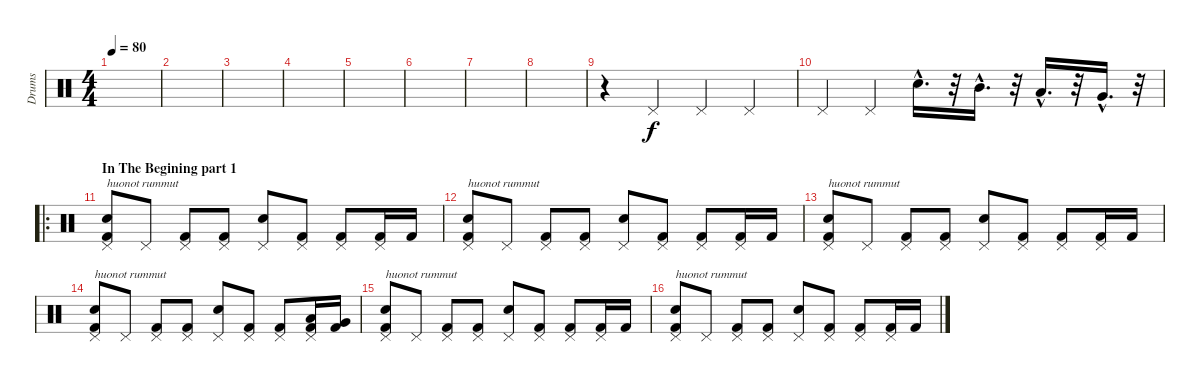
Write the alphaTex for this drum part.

\track ("Drums" "Drums") {instrument percussion}
\staff {score}
\articulation defaults
\ts (4 4)
\tempo 80
\clef neutral
\ks c
|
|
|
|
|
|
|
|
r.4 "Pedal Hi-Hat (hit)".4 "Pedal Hi-Hat (hit)".4 "Pedal Hi-Hat (hit)".4 |
"Pedal Hi-Hat (hit)".4 "Pedal Hi-Hat (hit)".4 "Snare (hit) 2"{hac}.16{d} r.32 "Mid Tom (hit)"{hac}.16{d} r.32 "Low Tom (hit)"{hac}.16{d} r.32 "Very Low Tom (hit)"{hac}.16{d} r.32 |
\ro
\section ("" "In The Begining part 1")
("Pedal Hi-Hat (hit)" "Snare (hit) 2" "Kick (hit) 2").8{txt "huonot rummut"} "Pedal Hi-Hat (hit)".8 ("Pedal Hi-Hat (hit)" "Kick (hit) 2").8 ("Pedal Hi-Hat (hit)" "Kick (hit) 2").8 ("Pedal Hi-Hat (hit)" "Snare (hit) 2").8 ("Pedal Hi-Hat (hit)" "Kick (hit) 2").8 ("Pedal Hi-Hat (hit)" "Kick (hit) 2").8 ("Pedal Hi-Hat (hit)" "Kick (hit) 2").16 "Kick (hit) 2".16 |
("Pedal Hi-Hat (hit)" "Snare (hit) 2" "Kick (hit) 2").8{txt "huonot rummut"} "Pedal Hi-Hat (hit)".8 ("Pedal Hi-Hat (hit)" "Kick (hit) 2").8 ("Pedal Hi-Hat (hit)" "Kick (hit) 2").8 ("Pedal Hi-Hat (hit)" "Snare (hit) 2").8 ("Pedal Hi-Hat (hit)" "Kick (hit) 2").8 ("Pedal Hi-Hat (hit)" "Kick (hit) 2").8 ("Pedal Hi-Hat (hit)" "Kick (hit) 2").16 "Kick (hit) 2".16 |
("Pedal Hi-Hat (hit)" "Snare (hit) 2" "Kick (hit) 2").8{txt "huonot rummut"} "Pedal Hi-Hat (hit)".8 ("Pedal Hi-Hat (hit)" "Kick (hit) 2").8 ("Pedal Hi-Hat (hit)" "Kick (hit) 2").8 ("Pedal Hi-Hat (hit)" "Snare (hit) 2").8 ("Pedal Hi-Hat (hit)" "Kick (hit) 2").8 ("Pedal Hi-Hat (hit)" "Kick (hit) 2").8 ("Pedal Hi-Hat (hit)" "Kick (hit) 2").16 "Kick (hit) 2".16 |
("Pedal Hi-Hat (hit)" "Snare (hit) 2" "Kick (hit) 2").8{txt "huonot rummut"} "Pedal Hi-Hat (hit)".8 ("Pedal Hi-Hat (hit)" "Kick (hit) 2").8 ("Pedal Hi-Hat (hit)" "Kick (hit) 2").8 ("Pedal Hi-Hat (hit)" "Snare (hit) 2").8 ("Pedal Hi-Hat (hit)" "Kick (hit) 2").8 ("Pedal Hi-Hat (hit)" "Kick (hit) 2").8 ("Pedal Hi-Hat (hit)" "Low Tom (hit)" "Kick (hit) 2").16 ("Very Low Tom (hit)" "Kick (hit) 2").16 |
("Pedal Hi-Hat (hit)" "Snare (hit) 2" "Kick (hit) 2").8{txt "huonot rummut"} "Pedal Hi-Hat (hit)".8 ("Pedal Hi-Hat (hit)" "Kick (hit) 2").8 ("Pedal Hi-Hat (hit)" "Kick (hit) 2").8 ("Pedal Hi-Hat (hit)" "Snare (hit) 2").8 ("Pedal Hi-Hat (hit)" "Kick (hit) 2").8 ("Pedal Hi-Hat (hit)" "Kick (hit) 2").8 ("Pedal Hi-Hat (hit)" "Kick (hit) 2").16 "Kick (hit) 2".16 |
("Pedal Hi-Hat (hit)" "Snare (hit) 2" "Kick (hit) 2").8{txt "huonot rummut"} "Pedal Hi-Hat (hit)".8 ("Pedal Hi-Hat (hit)" "Kick (hit) 2").8 ("Pedal Hi-Hat (hit)" "Kick (hit) 2").8 ("Pedal Hi-Hat (hit)" "Snare (hit) 2").8 ("Pedal Hi-Hat (hit)" "Kick (hit) 2").8 ("Pedal Hi-Hat (hit)" "Kick (hit) 2").8 ("Pedal Hi-Hat (hit)" "Kick (hit) 2").16 "Kick (hit) 2".16
